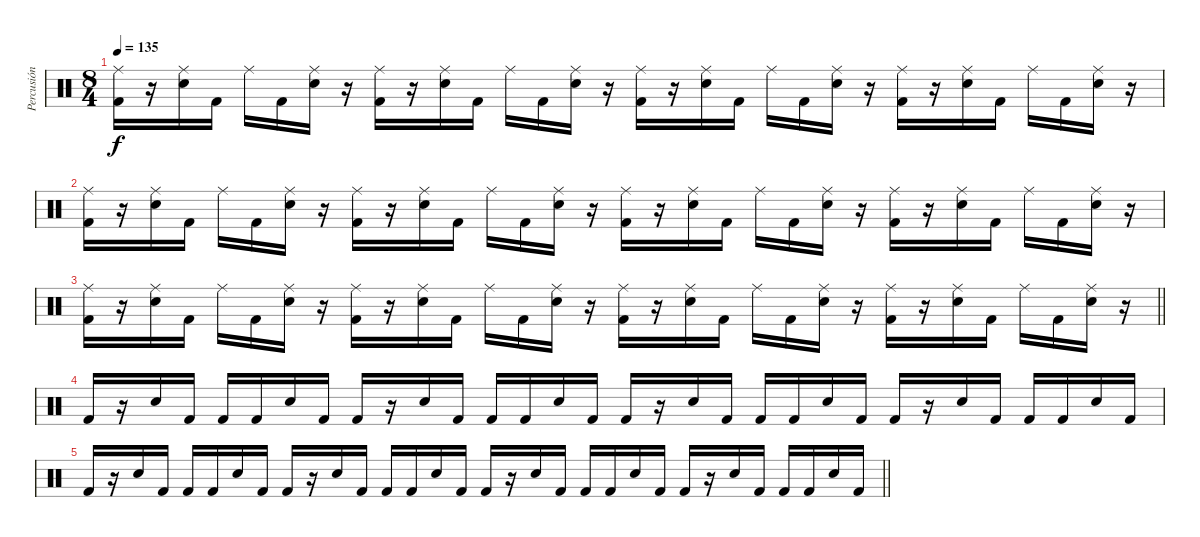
\track ("Percusión" "Percusión") {instrument percussion}
\staff {score}
\articulation defaults
\ts (8 4)
\tempo 135
\clef neutral
\ks c
("Kick (hit) 2" "Ride (middle)").16{dy f} r.16 ("Snare (hit) 2" "Ride (middle)").16 "Kick (hit) 2".16 "Ride (middle)".16 "Kick (hit) 2".16 ("Snare (hit) 2" "Ride (middle)").16 r.16 ("Kick (hit) 2" "Ride (middle)").16 r.16 ("Snare (hit) 2" "Ride (middle)").16 "Kick (hit) 2".16 "Ride (middle)".16 "Kick (hit) 2".16 ("Snare (hit) 2" "Ride (middle)").16 r.16 ("Kick (hit) 2" "Ride (middle)").16 r.16 ("Snare (hit) 2" "Ride (middle)").16 "Kick (hit) 2".16 "Ride (middle)".16 "Kick (hit) 2".16 ("Snare (hit) 2" "Ride (middle)").16 r.16 ("Kick (hit) 2" "Ride (middle)").16 r.16 ("Snare (hit) 2" "Ride (middle)").16 "Kick (hit) 2".16 "Ride (middle)".16 "Kick (hit) 2".16 ("Snare (hit) 2" "Ride (middle)").16 r.16 |
("Kick (hit) 2" "Ride (middle)").16 r.16 ("Snare (hit) 2" "Ride (middle)").16 "Kick (hit) 2".16 "Ride (middle)".16 "Kick (hit) 2".16 ("Snare (hit) 2" "Ride (middle)").16 r.16 ("Kick (hit) 2" "Ride (middle)").16 r.16 ("Snare (hit) 2" "Ride (middle)").16 "Kick (hit) 2".16 "Ride (middle)".16 "Kick (hit) 2".16 ("Snare (hit) 2" "Ride (middle)").16 r.16 ("Kick (hit) 2" "Ride (middle)").16 r.16 ("Snare (hit) 2" "Ride (middle)").16 "Kick (hit) 2".16 "Ride (middle)".16 "Kick (hit) 2".16 ("Snare (hit) 2" "Ride (middle)").16 r.16 ("Kick (hit) 2" "Ride (middle)").16 r.16 ("Snare (hit) 2" "Ride (middle)").16 "Kick (hit) 2".16 "Ride (middle)".16 "Kick (hit) 2".16 ("Snare (hit) 2" "Ride (middle)").16 r.16 |
\barLineRight lightlight
("Kick (hit) 2" "Ride (middle)").16 r.16 ("Snare (hit) 2" "Ride (middle)").16 "Kick (hit) 2".16 "Ride (middle)".16 "Kick (hit) 2".16 ("Snare (hit) 2" "Ride (middle)").16 r.16 ("Kick (hit) 2" "Ride (middle)").16 r.16 ("Snare (hit) 2" "Ride (middle)").16 "Kick (hit) 2".16 "Ride (middle)".16 "Kick (hit) 2".16 ("Snare (hit) 2" "Ride (middle)").16 r.16 ("Kick (hit) 2" "Ride (middle)").16 r.16 ("Snare (hit) 2" "Ride (middle)").16 "Kick (hit) 2".16 "Ride (middle)".16 "Kick (hit) 2".16 ("Snare (hit) 2" "Ride (middle)").16 r.16 ("Kick (hit) 2" "Ride (middle)").16 r.16 ("Snare (hit) 2" "Ride (middle)").16 "Kick (hit) 2".16 "Ride (middle)".16 "Kick (hit) 2".16 ("Snare (hit) 2" "Ride (middle)").16 r.16 |
"Kick (hit) 2".16 r.16 "Snare (hit) 2".16 "Kick (hit) 2".16 "Kick (hit) 2".16 "Kick (hit) 2".16 "Snare (hit) 2".16 "Kick (hit) 2".16 "Kick (hit) 2".16 r.16 "Snare (hit) 2".16 "Kick (hit) 2".16 "Kick (hit) 2".16 "Kick (hit) 2".16 "Snare (hit) 2".16 "Kick (hit) 2".16 "Kick (hit) 2".16 r.16 "Snare (hit) 2".16 "Kick (hit) 2".16 "Kick (hit) 2".16 "Kick (hit) 2".16 "Snare (hit) 2".16 "Kick (hit) 2".16 "Kick (hit) 2".16 r.16 "Snare (hit) 2".16 "Kick (hit) 2".16 "Kick (hit) 2".16 "Kick (hit) 2".16 "Snare (hit) 2".16 "Kick (hit) 2".16 |
\barLineRight lightlight "Kick (hit) 2".16
r.16 "Snare (hit) 2".16 "Kick (hit) 2".16 "Kick (hit) 2".16 "Kick (hit) 2".16 "Snare (hit) 2".16 "Kick (hit) 2".16 "Kick (hit) 2".16 r.16 "Snare (hit) 2".16 "Kick (hit) 2".16 "Kick (hit) 2".16 "Kick (hit) 2".16 "Snare (hit) 2".16 "Kick (hit) 2".16 "Kick (hit) 2".16 r.16 "Snare (hit) 2".16 "Kick (hit) 2".16 "Kick (hit) 2".16 "Kick (hit) 2".16 "Snare (hit) 2".16 "Kick (hit) 2".16 "Kick (hit) 2".16 r.16 "Snare (hit) 2".16 "Kick (hit) 2".16 "Kick (hit) 2".16 "Kick (hit) 2".16 "Snare (hit) 2".16 "Kick (hit) 2".16
